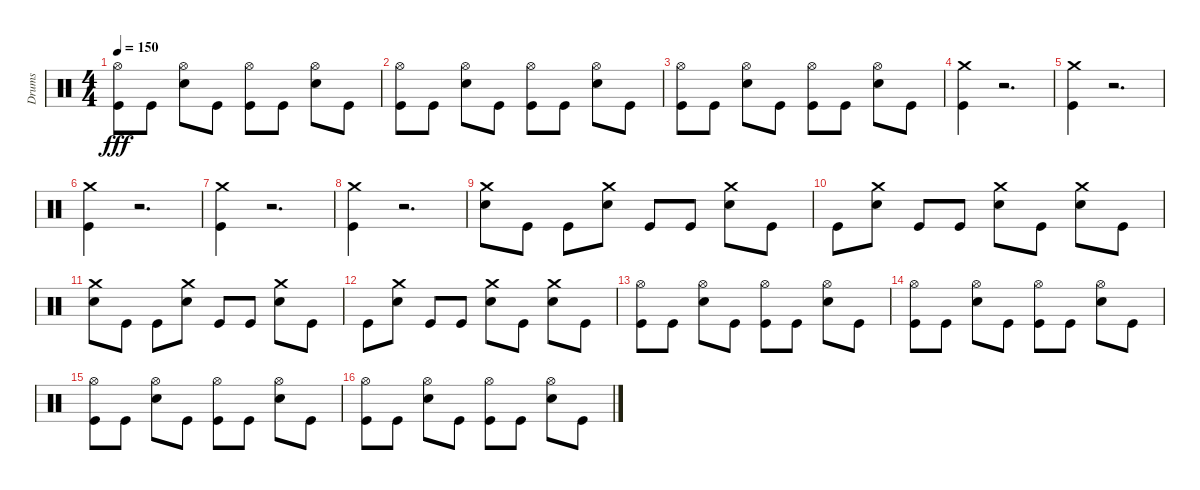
\track ("Drums" "Drums") {instrument percussion}
\staff {score}
\articulation defaults
\ts (4 4)
\tempo 150
\clef neutral
\ks c
("Hi-Hat (open)" "Kick (hit)").8{dy fff} "Kick (hit)".8 ("Hi-Hat (open)" "Snare (hit) 2").8 "Kick (hit)".8 ("Hi-Hat (open)" "Kick (hit)").8 "Kick (hit)".8 ("Hi-Hat (open)" "Snare (hit) 2").8 "Kick (hit)".8 |
("Hi-Hat (open)" "Kick (hit)").8 "Kick (hit)".8 ("Hi-Hat (open)" "Snare (hit) 2").8 "Kick (hit)".8 ("Hi-Hat (open)" "Kick (hit)").8 "Kick (hit)".8 ("Hi-Hat (open)" "Snare (hit) 2").8 "Kick (hit)".8 |
("Hi-Hat (open)" "Kick (hit)").8 "Kick (hit)".8 ("Hi-Hat (open)" "Snare (hit) 2").8 "Kick (hit)".8 ("Hi-Hat (open)" "Kick (hit)").8 "Kick (hit)".8 ("Hi-Hat (open)" "Snare (hit) 2").8 "Kick (hit)".8 |
("Kick (hit)" "Crash medium (hit)").4 r.2{d} |
("Kick (hit)" "Crash medium (hit)").4 r.2{d} |
("Kick (hit)" "Crash medium (hit)").4 r.2{d} |
("Kick (hit)" "Crash medium (hit)").4 r.2{d} |
("Kick (hit)" "Crash medium (hit)").4 r.2{d} |
("Crash medium (hit)" "Snare (hit) 2").8 "Kick (hit)".8 "Kick (hit)".8 ("Crash medium (hit)" "Snare (hit) 2").8 "Kick (hit)".8 "Kick (hit)".8 ("Crash medium (hit)" "Snare (hit) 2").8 "Kick (hit)".8 |
"Kick (hit)".8 ("Crash medium (hit)" "Snare (hit) 2").8 "Kick (hit)".8 "Kick (hit)".8 ("Crash medium (hit)" "Snare (hit) 2").8 "Kick (hit)".8 ("Crash medium (hit)" "Snare (hit) 2").8 "Kick (hit)".8 |
("Crash medium (hit)" "Snare (hit) 2").8 "Kick (hit)".8 "Kick (hit)".8 ("Crash medium (hit)" "Snare (hit) 2").8 "Kick (hit)".8 "Kick (hit)".8 ("Crash medium (hit)" "Snare (hit) 2").8 "Kick (hit)".8 |
"Kick (hit)".8 ("Crash medium (hit)" "Snare (hit) 2").8 "Kick (hit)".8 "Kick (hit)".8 ("Crash medium (hit)" "Snare (hit) 2").8 "Kick (hit)".8 ("Crash medium (hit)" "Snare (hit) 2").8 "Kick (hit)".8 |
("Hi-Hat (open)" "Kick (hit)").8 "Kick (hit)".8 ("Hi-Hat (open)" "Snare (hit) 2").8 "Kick (hit)".8 ("Hi-Hat (open)" "Kick (hit)").8 "Kick (hit)".8 ("Hi-Hat (open)" "Snare (hit) 2").8 "Kick (hit)".8 |
("Hi-Hat (open)" "Kick (hit)").8 "Kick (hit)".8 ("Hi-Hat (open)" "Snare (hit) 2").8 "Kick (hit)".8 ("Hi-Hat (open)" "Kick (hit)").8 "Kick (hit)".8 ("Hi-Hat (open)" "Snare (hit) 2").8 "Kick (hit)".8 |
("Hi-Hat (open)" "Kick (hit)").8 "Kick (hit)".8 ("Hi-Hat (open)" "Snare (hit) 2").8 "Kick (hit)".8 ("Hi-Hat (open)" "Kick (hit)").8 "Kick (hit)".8 ("Hi-Hat (open)" "Snare (hit) 2").8 "Kick (hit)".8 |
("Hi-Hat (open)" "Kick (hit)").8 "Kick (hit)".8 ("Hi-Hat (open)" "Snare (hit) 2").8 "Kick (hit)".8 ("Hi-Hat (open)" "Kick (hit)").8 "Kick (hit)".8 ("Hi-Hat (open)" "Snare (hit) 2").8 "Kick (hit)".8
